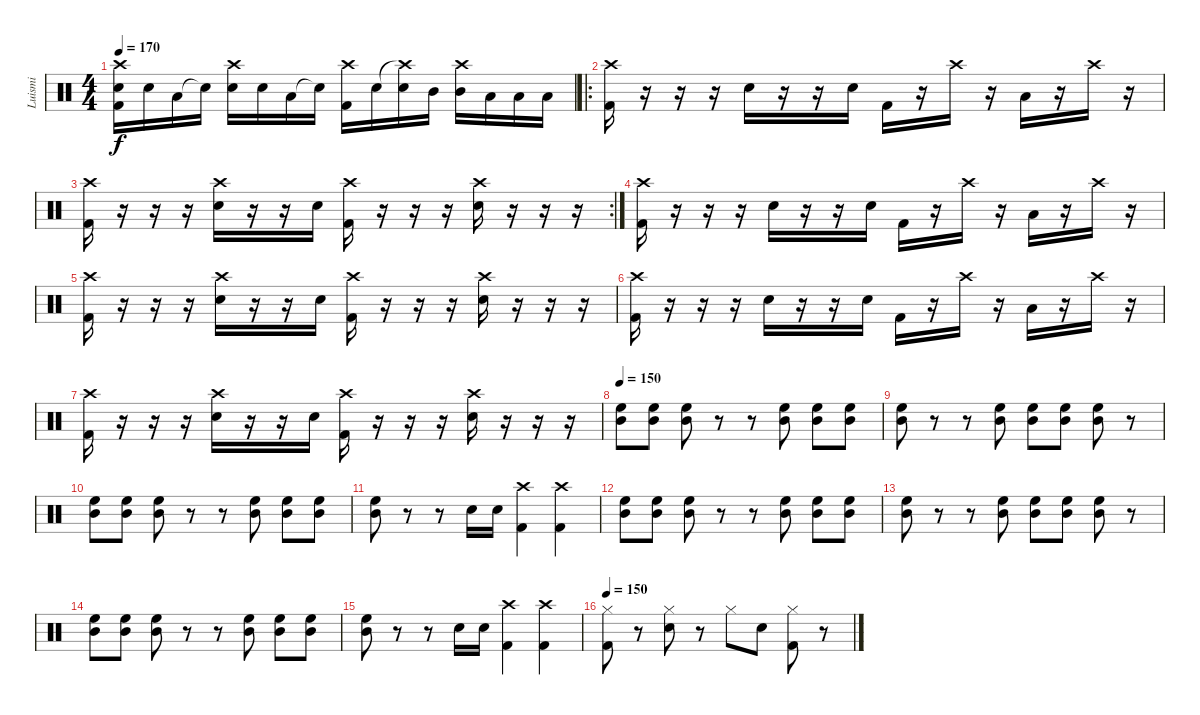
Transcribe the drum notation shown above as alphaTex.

\track ("Luismi" "Luismi") {instrument percussion}
\staff {score}
\articulation defaults
\ts (4 4)
\tempo 170
\clef neutral
\ks c
("Crash high (hit)" "Kick (hit) 2" "Electric Snare (hit)").16{dy f} "Electric Snare (hit)".16 "Low Tom (hit)".16 "Snare (hit)"{t}.16 ("Crash high (hit)" "Electric Snare (hit)").16 "Electric Snare (hit)".16 "Low Tom (hit)".16 "Snare (hit)"{t}.16 ("Crash high (hit)" "Kick (hit) 2").16 "Electric Snare (hit)".16 ("Crash high (hit)"{t} "Electric Snare (hit)").16 "Mid Tom (hit)".16 ("Crash high (hit)" "Mid Tom (hit)").16 "Low Tom (hit)".16 "Low Tom (hit)".16 "Low Tom (hit)".16 |
\ro
("Crash high (hit)" "Kick (hit) 2").16 r.16 r.16 r.16 "Electric Snare (hit)".16 r.16 r.16 "Electric Snare (hit)".16 "Kick (hit) 2".16 r.16 "Crash high (hit)".16 r.16 "Low Tom (hit)".16 r.16 "Crash high (hit)".16 r.16 |
\rc 2
("Crash high (hit)" "Kick (hit) 2").16 r.16 r.16 r.16 ("Crash high (hit)" "Electric Snare (hit)").16 r.16 r.16 "Electric Snare (hit)".16 ("Crash high (hit)" "Kick (hit) 2").16 r.16 r.16 r.16 ("Crash high (hit)" "Electric Snare (hit)").16 r.16 r.16 r.16 |
("Crash high (hit)" "Kick (hit) 2").16 r.16 r.16 r.16 "Electric Snare (hit)".16 r.16 r.16 "Electric Snare (hit)".16 "Kick (hit) 2".16 r.16 "Crash high (hit)".16 r.16 "Low Tom (hit)".16 r.16 "Crash high (hit)".16 r.16 |
("Crash high (hit)" "Kick (hit) 2").16 r.16 r.16 r.16 ("Crash high (hit)" "Electric Snare (hit)").16 r.16 r.16 "Electric Snare (hit)".16 ("Crash high (hit)" "Kick (hit) 2").16 r.16 r.16 r.16 ("Crash high (hit)" "Electric Snare (hit)").16 r.16 r.16 r.16 |
("Crash high (hit)" "Kick (hit) 2").16 r.16 r.16 r.16 "Electric Snare (hit)".16 r.16 r.16 "Electric Snare (hit)".16 "Kick (hit) 2".16 r.16 "Crash high (hit)".16 r.16 "Low Tom (hit)".16 r.16 "Crash high (hit)".16 r.16 |
("Crash high (hit)" "Kick (hit) 2").16 r.16 r.16 r.16 ("Crash high (hit)" "Electric Snare (hit)").16 r.16 r.16 "Electric Snare (hit)".16 ("Crash high (hit)" "Kick (hit) 2").16 r.16 r.16 r.16 ("Crash high (hit)" "Electric Snare (hit)").16 r.16 r.16 r.16 |
\tempo 150
("High Floor Tom (hit)" "Mid Tom (hit)").8 ("High Floor Tom (hit)" "Mid Tom (hit)").8 ("High Floor Tom (hit)" "Mid Tom (hit)").8 r.8 r.8 ("High Floor Tom (hit)" "Mid Tom (hit)").8 ("High Floor Tom (hit)" "Mid Tom (hit)").8 ("High Floor Tom (hit)" "Mid Tom (hit)").8 |
("High Floor Tom (hit)" "Mid Tom (hit)").8 r.8 r.8 ("High Floor Tom (hit)" "Mid Tom (hit)").8 ("High Floor Tom (hit)" "Mid Tom (hit)").8 ("High Floor Tom (hit)" "Mid Tom (hit)").8 ("High Floor Tom (hit)" "Mid Tom (hit)").8 r.8 |
("High Floor Tom (hit)" "Mid Tom (hit)").8 ("High Floor Tom (hit)" "Mid Tom (hit)").8 ("High Floor Tom (hit)" "Mid Tom (hit)").8 r.8 r.8 ("High Floor Tom (hit)" "Mid Tom (hit)").8 ("High Floor Tom (hit)" "Mid Tom (hit)").8 ("High Floor Tom (hit)" "Mid Tom (hit)").8 |
("High Floor Tom (hit)" "Mid Tom (hit)").8 r.8 r.8 "Electric Snare (hit)".16 "Electric Snare (hit)".16 ("Crash high (hit)" "Kick (hit) 2").4 ("Crash high (hit)" "Kick (hit) 2").4 |
("High Floor Tom (hit)" "Mid Tom (hit)").8 ("High Floor Tom (hit)" "Mid Tom (hit)").8 ("High Floor Tom (hit)" "Mid Tom (hit)").8 r.8 r.8 ("High Floor Tom (hit)" "Mid Tom (hit)").8 ("High Floor Tom (hit)" "Mid Tom (hit)").8 ("High Floor Tom (hit)" "Mid Tom (hit)").8 |
("High Floor Tom (hit)" "Mid Tom (hit)").8 r.8 r.8 ("High Floor Tom (hit)" "Mid Tom (hit)").8 ("High Floor Tom (hit)" "Mid Tom (hit)").8 ("High Floor Tom (hit)" "Mid Tom (hit)").8 ("High Floor Tom (hit)" "Mid Tom (hit)").8 r.8 |
("High Floor Tom (hit)" "Mid Tom (hit)").8 ("High Floor Tom (hit)" "Mid Tom (hit)").8 ("High Floor Tom (hit)" "Mid Tom (hit)").8 r.8 r.8 ("High Floor Tom (hit)" "Mid Tom (hit)").8 ("High Floor Tom (hit)" "Mid Tom (hit)").8 ("High Floor Tom (hit)" "Mid Tom (hit)").8 |
("High Floor Tom (hit)" "Mid Tom (hit)").8 r.8 r.8 "Electric Snare (hit)".16 "Electric Snare (hit)".16 ("Crash high (hit)" "Kick (hit) 2").4 ("Crash high (hit)" "Kick (hit) 2").4 |
\tempo 150
("Hi-Hat (closed)" "Kick (hit) 2").8 r.8 ("Hi-Hat (closed)" "Electric Snare (hit)").8 r.8 "Hi-Hat (closed)".8 "Electric Snare (hit)".8 ("Hi-Hat (closed)" "Kick (hit) 2").8 r.8
